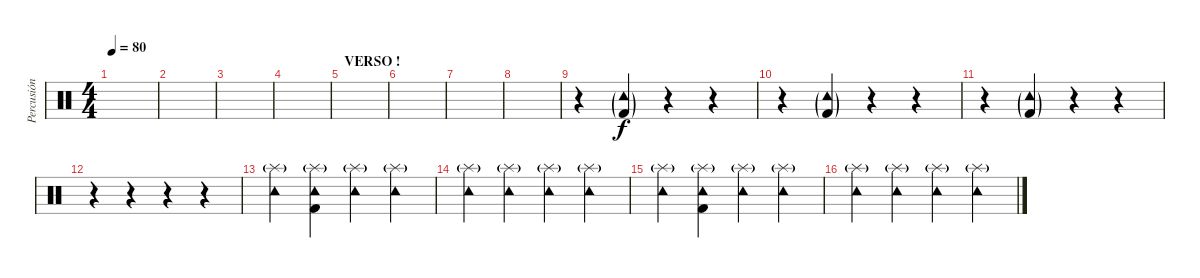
\track ("Percusión" "Percusión") {instrument percussion}
\staff {score}
\articulation defaults
\ts (4 4)
\tempo 80
\clef neutral
\ks c
|
|
|
|
\section ("" "VERSO !")
|
|
|
|
r.4 ("Tambourine (hit)"{g} "Kick (hit) 2"{g}).4 r.4 r.4 |
r.4 ("Tambourine (hit)"{g} "Kick (hit) 2"{g}).4 r.4 r.4 |
r.4 ("Tambourine (hit)"{g} "Kick (hit) 2"{g}).4 r.4 r.4 |
r.4 r.4 r.4 r.4 |
("Splash (hit)"{g} "Tambourine (hit)").4 ("Splash (hit)"{g} "Tambourine (hit)" "Kick (hit) 2").4 ("Splash (hit)"{g} "Tambourine (hit)").4 ("Splash (hit)"{g} "Tambourine (hit)").4 |
("Splash (hit)"{g} "Tambourine (hit)").4 ("Splash (hit)"{g} "Tambourine (hit)").4 ("Splash (hit)"{g} "Tambourine (hit)").4 ("Splash (hit)"{g} "Tambourine (hit)").4 |
("Splash (hit)"{g} "Tambourine (hit)").4 ("Splash (hit)"{g} "Tambourine (hit)" "Kick (hit) 2").4 ("Splash (hit)"{g} "Tambourine (hit)").4 ("Splash (hit)"{g} "Tambourine (hit)").4 |
("Splash (hit)"{g} "Tambourine (hit)").4 ("Splash (hit)"{g} "Tambourine (hit)").4 ("Splash (hit)"{g} "Tambourine (hit)").4 ("Splash (hit)"{g} "Tambourine (hit)").4
